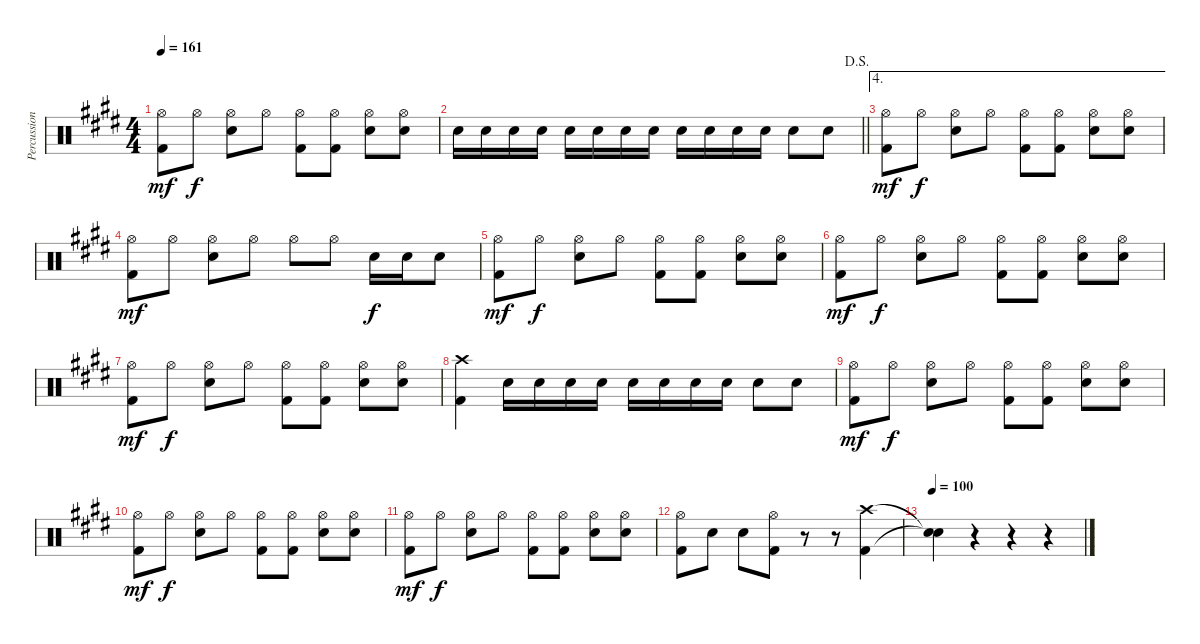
\track ("Percussion" "Percussion") {instrument percussion}
\staff {score}
\articulation defaults
\ts (4 4)
\tempo 161
\clef neutral
\ks e
("Hi-Hat (open)" "Kick (hit) 2").8{dy mf} "Hi-Hat (open)".8{dy f} ("Hi-Hat (open)" "Snare (hit) 2").8 "Hi-Hat (open)".8 ("Hi-Hat (open)" "Kick (hit) 2").8 ("Hi-Hat (open)" "Kick (hit) 2").8 ("Hi-Hat (open)" "Snare (hit) 2").8 ("Hi-Hat (open)" "Snare (hit) 2").8 |
\jump dalsegno
\barLineRight lightlight "Snare (hit) 2".16 "Snare (hit) 2".16 "Snare (hit) 2".16 "Snare (hit) 2".16 "Snare (hit) 2".16 "Snare (hit) 2".16 "Snare (hit) 2".16 "Snare (hit) 2".16 "Snare (hit) 2".16 "Snare (hit) 2".16 "Snare (hit) 2".16 "Snare (hit) 2".16 "Snare (hit) 2".8 "Snare (hit) 2".8
|
\ae 4
("Hi-Hat (open)" "Kick (hit) 2").8{dy mf} "Hi-Hat (open)".8{dy f} ("Hi-Hat (open)" "Snare (hit) 2").8 "Hi-Hat (open)".8 ("Hi-Hat (open)" "Kick (hit) 2").8 ("Hi-Hat (open)" "Kick (hit) 2").8 ("Hi-Hat (open)" "Snare (hit) 2").8 ("Hi-Hat (open)" "Snare (hit) 2").8 |
("Hi-Hat (open)" "Kick (hit) 2").8{dy mf} "Hi-Hat (open)".8 ("Hi-Hat (open)" "Snare (hit) 2").8 "Hi-Hat (open)".8 "Hi-Hat (open)".8 "Hi-Hat (open)".8 "Snare (hit) 2".16{dy f} "Snare (hit) 2".16 "Snare (hit) 2".8 |
("Hi-Hat (open)" "Kick (hit) 2").8{dy mf} "Hi-Hat (open)".8{dy f} ("Hi-Hat (open)" "Snare (hit) 2").8 "Hi-Hat (open)".8 ("Hi-Hat (open)" "Kick (hit) 2").8 ("Hi-Hat (open)" "Kick (hit) 2").8 ("Hi-Hat (open)" "Snare (hit) 2").8 ("Hi-Hat (open)" "Snare (hit) 2").8 |
("Hi-Hat (open)" "Kick (hit) 2").8{dy mf} "Hi-Hat (open)".8{dy f} ("Hi-Hat (open)" "Snare (hit) 2").8 "Hi-Hat (open)".8 ("Hi-Hat (open)" "Kick (hit) 2").8 ("Hi-Hat (open)" "Kick (hit) 2").8 ("Hi-Hat (open)" "Snare (hit) 2").8 ("Hi-Hat (open)" "Snare (hit) 2").8 |
("Hi-Hat (open)" "Kick (hit) 2").8{dy mf} "Hi-Hat (open)".8{dy f} ("Hi-Hat (open)" "Snare (hit) 2").8 "Hi-Hat (open)".8 ("Hi-Hat (open)" "Kick (hit) 2").8 ("Hi-Hat (open)" "Kick (hit) 2").8 ("Hi-Hat (open)" "Snare (hit) 2").8 ("Hi-Hat (open)" "Snare (hit) 2").8 |
("Crash high (hit)" "Kick (hit) 2").4 "Snare (hit) 2".16 "Snare (hit) 2".16 "Snare (hit) 2".16 "Snare (hit) 2".16 "Snare (hit) 2".16 "Snare (hit) 2".16 "Snare (hit) 2".16 "Snare (hit) 2".16 "Snare (hit) 2".8 "Snare (hit) 2".8 |
("Hi-Hat (open)" "Kick (hit) 2").8{dy mf} "Hi-Hat (open)".8{dy f} ("Hi-Hat (open)" "Snare (hit) 2").8 "Hi-Hat (open)".8 ("Hi-Hat (open)" "Kick (hit) 2").8 ("Hi-Hat (open)" "Kick (hit) 2").8 ("Hi-Hat (open)" "Snare (hit) 2").8 ("Hi-Hat (open)" "Snare (hit) 2").8 |
("Hi-Hat (open)" "Kick (hit) 2").8{dy mf} "Hi-Hat (open)".8{dy f} ("Hi-Hat (open)" "Snare (hit) 2").8 "Hi-Hat (open)".8 ("Hi-Hat (open)" "Kick (hit) 2").8 ("Hi-Hat (open)" "Kick (hit) 2").8 ("Hi-Hat (open)" "Snare (hit) 2").8 ("Hi-Hat (open)" "Snare (hit) 2").8 |
("Hi-Hat (open)" "Kick (hit) 2").8{dy mf} "Hi-Hat (open)".8{dy f} ("Hi-Hat (open)" "Snare (hit) 2").8 "Hi-Hat (open)".8 ("Hi-Hat (open)" "Kick (hit) 2").8 ("Hi-Hat (open)" "Kick (hit) 2").8 ("Hi-Hat (open)" "Snare (hit) 2").8 ("Hi-Hat (open)" "Snare (hit) 2").8 |
("Hi-Hat (open)" "Kick (hit) 2").8 "Snare (hit) 2".8 "Snare (hit) 2".8 ("Hi-Hat (open)" "Kick (hit) 2").8 r.8 r.8 ("Crash high (hit)" "Kick (hit) 2").4 |
\tempo 100
("Snare (hit)"{t} "Snare (hit)"{t}).4 r.4 r.4 r.4
